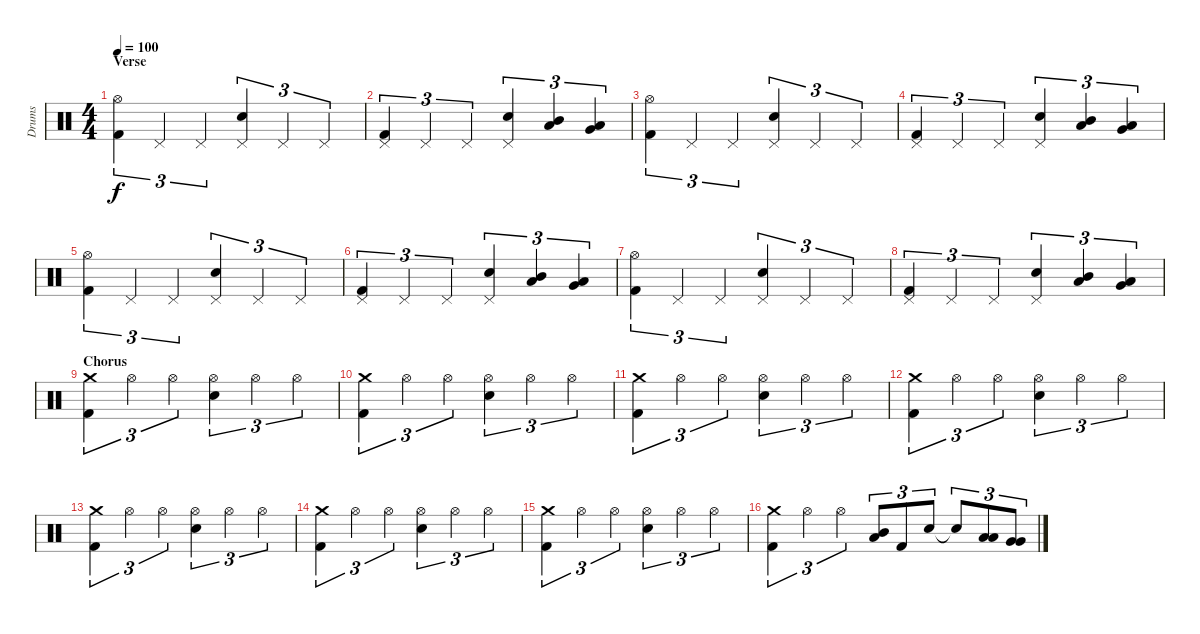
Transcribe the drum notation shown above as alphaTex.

\track ("Drums" "Drums") {instrument percussion}
\staff {score}
\articulation defaults
\ts (4 4)
\section ("" "Verse")
\tempo 100
\clef neutral
\ks c
("Hi-Hat (open)" "Kick (hit) 2").4{tu (3 2) dy f} "Pedal Hi-Hat (hit)".4{tu (3 2)} "Pedal Hi-Hat (hit)".4{tu (3 2)} ("Pedal Hi-Hat (hit)" "Electric Snare (hit)").4{tu (3 2)} "Pedal Hi-Hat (hit)".4{tu (3 2)} "Pedal Hi-Hat (hit)".4{tu (3 2)} |
("Pedal Hi-Hat (hit)" "Kick (hit) 2").4{tu (3 2)} "Pedal Hi-Hat (hit)".4{tu (3 2)} "Pedal Hi-Hat (hit)".4{tu (3 2)} ("Pedal Hi-Hat (hit)" "Electric Snare (hit)").4{tu (3 2)} ("Low Tom (hit)" "Mid Tom (hit)").4{tu (3 2)} ("Very Low Tom (hit)" "Low Tom (hit)").4{tu (3 2)} |
("Hi-Hat (open)" "Kick (hit) 2").4{tu (3 2)} "Pedal Hi-Hat (hit)".4{tu (3 2)} "Pedal Hi-Hat (hit)".4{tu (3 2)} ("Pedal Hi-Hat (hit)" "Electric Snare (hit)").4{tu (3 2)} "Pedal Hi-Hat (hit)".4{tu (3 2)} "Pedal Hi-Hat (hit)".4{tu (3 2)} |
("Pedal Hi-Hat (hit)" "Kick (hit) 2").4{tu (3 2)} "Pedal Hi-Hat (hit)".4{tu (3 2)} "Pedal Hi-Hat (hit)".4{tu (3 2)} ("Pedal Hi-Hat (hit)" "Electric Snare (hit)").4{tu (3 2)} ("Low Tom (hit)" "Mid Tom (hit)").4{tu (3 2)} ("Very Low Tom (hit)" "Low Tom (hit)").4{tu (3 2)} |
("Hi-Hat (open)" "Kick (hit) 2").4{tu (3 2)} "Pedal Hi-Hat (hit)".4{tu (3 2)} "Pedal Hi-Hat (hit)".4{tu (3 2)} ("Pedal Hi-Hat (hit)" "Electric Snare (hit)").4{tu (3 2)} "Pedal Hi-Hat (hit)".4{tu (3 2)} "Pedal Hi-Hat (hit)".4{tu (3 2)} |
("Pedal Hi-Hat (hit)" "Kick (hit) 2").4{tu (3 2)} "Pedal Hi-Hat (hit)".4{tu (3 2)} "Pedal Hi-Hat (hit)".4{tu (3 2)} ("Pedal Hi-Hat (hit)" "Electric Snare (hit)").4{tu (3 2)} ("Low Tom (hit)" "Mid Tom (hit)").4{tu (3 2)} ("Very Low Tom (hit)" "Low Tom (hit)").4{tu (3 2)} |
("Hi-Hat (open)" "Kick (hit) 2").4{tu (3 2)} "Pedal Hi-Hat (hit)".4{tu (3 2)} "Pedal Hi-Hat (hit)".4{tu (3 2)} ("Pedal Hi-Hat (hit)" "Electric Snare (hit)").4{tu (3 2)} "Pedal Hi-Hat (hit)".4{tu (3 2)} "Pedal Hi-Hat (hit)".4{tu (3 2)} |
("Pedal Hi-Hat (hit)" "Kick (hit) 2").4{tu (3 2)} "Pedal Hi-Hat (hit)".4{tu (3 2)} "Pedal Hi-Hat (hit)".4{tu (3 2)} ("Pedal Hi-Hat (hit)" "Electric Snare (hit)").4{tu (3 2)} ("Low Tom (hit)" "Mid Tom (hit)").4{tu (3 2)} ("Very Low Tom (hit)" "Low Tom (hit)").4{tu (3 2)} |
\section ("" "Chorus")
("Crash medium (hit)" "Kick (hit) 2").4{tu (3 2)} "Hi-Hat (open)".4{tu (3 2)} "Hi-Hat (open)".4{tu (3 2)} ("Hi-Hat (open)" "Electric Snare (hit)").4{tu (3 2)} "Hi-Hat (open)".4{tu (3 2)} "Hi-Hat (open)".4{tu (3 2)} |
("Crash medium (hit)" "Kick (hit) 2").4{tu (3 2)} "Hi-Hat (open)".4{tu (3 2)} "Hi-Hat (open)".4{tu (3 2)} ("Hi-Hat (open)" "Electric Snare (hit)").4{tu (3 2)} "Hi-Hat (open)".4{tu (3 2)} "Hi-Hat (open)".4{tu (3 2)} |
("Crash medium (hit)" "Kick (hit) 2").4{tu (3 2)} "Hi-Hat (open)".4{tu (3 2)} "Hi-Hat (open)".4{tu (3 2)} ("Hi-Hat (open)" "Electric Snare (hit)").4{tu (3 2)} "Hi-Hat (open)".4{tu (3 2)} "Hi-Hat (open)".4{tu (3 2)} |
("Crash medium (hit)" "Kick (hit) 2").4{tu (3 2)} "Hi-Hat (open)".4{tu (3 2)} "Hi-Hat (open)".4{tu (3 2)} ("Hi-Hat (open)" "Electric Snare (hit)").4{tu (3 2)} "Hi-Hat (open)".4{tu (3 2)} "Hi-Hat (open)".4{tu (3 2)} |
("Crash medium (hit)" "Kick (hit) 2").4{tu (3 2)} "Hi-Hat (open)".4{tu (3 2)} "Hi-Hat (open)".4{tu (3 2)} ("Hi-Hat (open)" "Electric Snare (hit)").4{tu (3 2)} "Hi-Hat (open)".4{tu (3 2)} "Hi-Hat (open)".4{tu (3 2)} |
("Crash medium (hit)" "Kick (hit) 2").4{tu (3 2)} "Hi-Hat (open)".4{tu (3 2)} "Hi-Hat (open)".4{tu (3 2)} ("Hi-Hat (open)" "Electric Snare (hit)").4{tu (3 2)} "Hi-Hat (open)".4{tu (3 2)} "Hi-Hat (open)".4{tu (3 2)} |
("Crash medium (hit)" "Kick (hit) 2").4{tu (3 2)} "Hi-Hat (open)".4{tu (3 2)} "Hi-Hat (open)".4{tu (3 2)} ("Hi-Hat (open)" "Electric Snare (hit)").4{tu (3 2)} "Hi-Hat (open)".4{tu (3 2)} "Hi-Hat (open)".4{tu (3 2)} |
("Crash medium (hit)" "Kick (hit) 2").4{tu (3 2)} "Hi-Hat (open)".4{tu (3 2)} "Hi-Hat (open)".4{tu (3 2)} ("Low Tom (hit)" "Mid Tom (hit)").8{tu (3 2)} "Kick (hit) 2".8{tu (3 2)} "Electric Snare (hit)".8{tu (3 2)} "Electric Snare (hit)"{t}.8{tu (3 2)} ("Low Tom (hit)" "Low Tom (hit)").8{tu (3 2)} ("Very Low Tom (hit)" "Very Low Tom (hit)").8{tu (3 2)}
